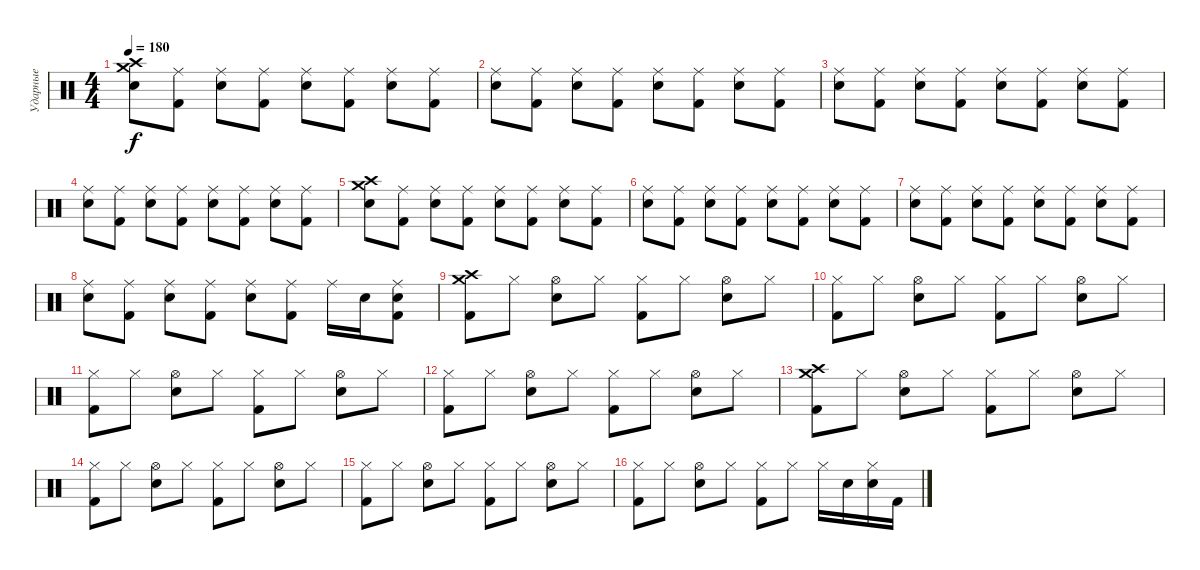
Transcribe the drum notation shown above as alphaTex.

\track ("Ударные" "Ударные") {instrument percussion}
\staff {score}
\articulation defaults
\ts (4 4)
\tempo 180
\clef neutral
\ks c
("Crash high (hit)" "Snare (hit) 2" "Crash medium (hit)").8{dy f} ("Ride (middle)" "Kick (hit) 2").8 ("Ride (middle)" "Snare (hit) 2").8 ("Ride (middle)" "Kick (hit) 2").8 ("Ride (middle)" "Snare (hit) 2").8 ("Ride (middle)" "Kick (hit) 2").8 ("Ride (middle)" "Snare (hit) 2").8 ("Ride (middle)" "Kick (hit) 2").8 |
("Ride (middle)" "Snare (hit) 2").8 ("Ride (middle)" "Kick (hit) 2").8 ("Ride (middle)" "Snare (hit) 2").8 ("Ride (middle)" "Kick (hit) 2").8 ("Ride (middle)" "Snare (hit) 2").8 ("Ride (middle)" "Kick (hit) 2").8 ("Ride (middle)" "Snare (hit) 2").8 ("Ride (middle)" "Kick (hit) 2").8 |
("Ride (middle)" "Snare (hit) 2").8 ("Ride (middle)" "Kick (hit) 2").8 ("Ride (middle)" "Snare (hit) 2").8 ("Ride (middle)" "Kick (hit) 2").8 ("Ride (middle)" "Snare (hit) 2").8 ("Ride (middle)" "Kick (hit) 2").8 ("Ride (middle)" "Snare (hit) 2").8 ("Ride (middle)" "Kick (hit) 2").8 |
("Ride (middle)" "Snare (hit) 2").8 ("Ride (middle)" "Kick (hit) 2").8 ("Ride (middle)" "Snare (hit) 2").8 ("Ride (middle)" "Kick (hit) 2").8 ("Ride (middle)" "Snare (hit) 2").8 ("Ride (middle)" "Kick (hit) 2").8 ("Ride (middle)" "Snare (hit) 2").8 ("Ride (middle)" "Kick (hit) 2").8 |
("Crash high (hit)" "Snare (hit) 2" "Crash medium (hit)").8 ("Ride (middle)" "Kick (hit) 2").8 ("Ride (middle)" "Snare (hit) 2").8 ("Ride (middle)" "Kick (hit) 2").8 ("Ride (middle)" "Snare (hit) 2").8 ("Ride (middle)" "Kick (hit) 2").8 ("Ride (middle)" "Snare (hit) 2").8 ("Ride (middle)" "Kick (hit) 2").8 |
("Ride (middle)" "Snare (hit) 2").8 ("Ride (middle)" "Kick (hit) 2").8 ("Ride (middle)" "Snare (hit) 2").8 ("Ride (middle)" "Kick (hit) 2").8 ("Ride (middle)" "Snare (hit) 2").8 ("Ride (middle)" "Kick (hit) 2").8 ("Ride (middle)" "Snare (hit) 2").8 ("Ride (middle)" "Kick (hit) 2").8 |
("Ride (middle)" "Snare (hit) 2").8 ("Ride (middle)" "Kick (hit) 2").8 ("Ride (middle)" "Snare (hit) 2").8 ("Ride (middle)" "Kick (hit) 2").8 ("Ride (middle)" "Snare (hit) 2").8 ("Ride (middle)" "Kick (hit) 2").8 ("Ride (middle)" "Snare (hit) 2").8 ("Ride (middle)" "Kick (hit) 2").8 |
("Ride (middle)" "Snare (hit) 2").8 ("Ride (middle)" "Kick (hit) 2").8 ("Ride (middle)" "Snare (hit) 2").8 ("Ride (middle)" "Kick (hit) 2").8 ("Ride (middle)" "Snare (hit) 2").8 ("Ride (middle)" "Kick (hit) 2").8 "Ride (middle)".16 "Snare (hit) 2".16 ("Ride (middle)" "Snare (hit) 2" "Kick (hit) 2").8 |
("Crash high (hit)" "Crash medium (hit)" "Kick (hit) 2").8 "Hi-Hat (closed)".8 ("Hi-Hat (open)" "Snare (hit) 2").8 "Hi-Hat (closed)".8 ("Hi-Hat (closed)" "Kick (hit) 2").8 "Hi-Hat (closed)".8 ("Hi-Hat (open)" "Snare (hit) 2").8 "Hi-Hat (closed)".8 |
("Hi-Hat (closed)" "Kick (hit) 2").8 "Hi-Hat (closed)".8 ("Hi-Hat (open)" "Snare (hit) 2").8 "Hi-Hat (closed)".8 ("Hi-Hat (closed)" "Kick (hit) 2").8 "Hi-Hat (closed)".8 ("Hi-Hat (open)" "Snare (hit) 2").8 "Hi-Hat (closed)".8 |
("Hi-Hat (closed)" "Kick (hit) 2").8 "Hi-Hat (closed)".8 ("Hi-Hat (open)" "Snare (hit) 2").8 "Hi-Hat (closed)".8 ("Hi-Hat (closed)" "Kick (hit) 2").8 "Hi-Hat (closed)".8 ("Hi-Hat (open)" "Snare (hit) 2").8 "Hi-Hat (closed)".8 |
("Hi-Hat (closed)" "Kick (hit) 2").8 "Hi-Hat (closed)".8 ("Hi-Hat (open)" "Snare (hit) 2").8 "Hi-Hat (closed)".8 ("Hi-Hat (closed)" "Kick (hit) 2").8 "Hi-Hat (closed)".8 ("Hi-Hat (open)" "Snare (hit) 2").8 "Hi-Hat (closed)".8 |
("Crash high (hit)" "Crash medium (hit)" "Kick (hit) 2").8 "Hi-Hat (closed)".8 ("Hi-Hat (open)" "Snare (hit) 2").8 "Hi-Hat (closed)".8 ("Hi-Hat (closed)" "Kick (hit) 2").8 "Hi-Hat (closed)".8 ("Hi-Hat (open)" "Snare (hit) 2").8 "Hi-Hat (closed)".8 |
("Hi-Hat (closed)" "Kick (hit) 2").8 "Hi-Hat (closed)".8 ("Hi-Hat (open)" "Snare (hit) 2").8 "Hi-Hat (closed)".8 ("Hi-Hat (closed)" "Kick (hit) 2").8 "Hi-Hat (closed)".8 ("Hi-Hat (open)" "Snare (hit) 2").8 "Hi-Hat (closed)".8 |
("Hi-Hat (closed)" "Kick (hit) 2").8 "Hi-Hat (closed)".8 ("Hi-Hat (open)" "Snare (hit) 2").8 "Hi-Hat (closed)".8 ("Hi-Hat (closed)" "Kick (hit) 2").8 "Hi-Hat (closed)".8 ("Hi-Hat (open)" "Snare (hit) 2").8 "Hi-Hat (closed)".8 |
("Hi-Hat (closed)" "Kick (hit) 2").8 "Hi-Hat (closed)".8 ("Hi-Hat (open)" "Snare (hit) 2").8 "Hi-Hat (closed)".8 ("Hi-Hat (closed)" "Kick (hit) 2").8 "Hi-Hat (closed)".8 "Hi-Hat (closed)".16 "Snare (hit) 2".16 ("Hi-Hat (closed)" "Snare (hit) 2").16 "Kick (hit) 2".16
